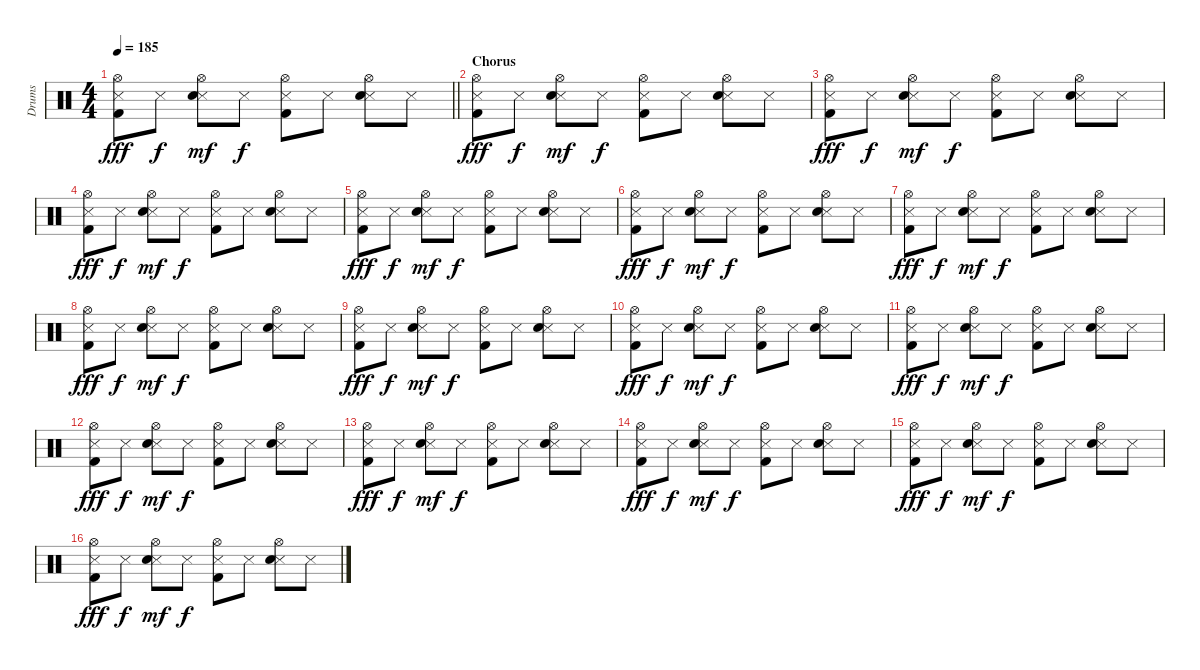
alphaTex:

\track ("Drums" "Drums") {instrument percussion}
\staff {score}
\articulation defaults
\ts (4 4)
\tempo 185
\clef neutral
\barLineRight lightlight
\ks c
("Hi-Hat (open)" "Metronome (hit)" "Kick (hit) 2").8{dy fff} "Metronome (hit)".8{dy f} ("Hi-Hat (open)" "Metronome (hit)" "Snare (hit) 2").8{dy mf} "Metronome (hit)".8{dy f} ("Hi-Hat (open)" "Metronome (hit)" "Kick (hit) 2").8 "Metronome (hit)".8 ("Hi-Hat (open)" "Metronome (hit)" "Snare (hit) 2").8 "Metronome (hit)".8 |
\section ("" "Chorus")
("Hi-Hat (open)" "Metronome (hit)" "Kick (hit) 2").8{dy fff} "Metronome (hit)".8{dy f} ("Hi-Hat (open)" "Metronome (hit)" "Snare (hit) 2").8{dy mf} "Metronome (hit)".8{dy f} ("Hi-Hat (open)" "Metronome (hit)" "Kick (hit) 2").8 "Metronome (hit)".8 ("Hi-Hat (open)" "Metronome (hit)" "Snare (hit) 2").8 "Metronome (hit)".8 |
("Hi-Hat (open)" "Metronome (hit)" "Kick (hit) 2").8{dy fff} "Metronome (hit)".8{dy f} ("Hi-Hat (open)" "Metronome (hit)" "Snare (hit) 2").8{dy mf} "Metronome (hit)".8{dy f} ("Hi-Hat (open)" "Metronome (hit)" "Kick (hit) 2").8 "Metronome (hit)".8 ("Hi-Hat (open)" "Metronome (hit)" "Snare (hit) 2").8 "Metronome (hit)".8 |
("Hi-Hat (open)" "Metronome (hit)" "Kick (hit) 2").8{dy fff} "Metronome (hit)".8{dy f} ("Hi-Hat (open)" "Metronome (hit)" "Snare (hit) 2").8{dy mf} "Metronome (hit)".8{dy f} ("Hi-Hat (open)" "Metronome (hit)" "Kick (hit) 2").8 "Metronome (hit)".8 ("Hi-Hat (open)" "Metronome (hit)" "Snare (hit) 2").8 "Metronome (hit)".8 |
("Hi-Hat (open)" "Metronome (hit)" "Kick (hit) 2").8{dy fff} "Metronome (hit)".8{dy f} ("Hi-Hat (open)" "Metronome (hit)" "Snare (hit) 2").8{dy mf} "Metronome (hit)".8{dy f} ("Hi-Hat (open)" "Metronome (hit)" "Kick (hit) 2").8 "Metronome (hit)".8 ("Hi-Hat (open)" "Metronome (hit)" "Snare (hit) 2").8 "Metronome (hit)".8 |
("Hi-Hat (open)" "Metronome (hit)" "Kick (hit) 2").8{dy fff} "Metronome (hit)".8{dy f} ("Hi-Hat (open)" "Metronome (hit)" "Snare (hit) 2").8{dy mf} "Metronome (hit)".8{dy f} ("Hi-Hat (open)" "Metronome (hit)" "Kick (hit) 2").8 "Metronome (hit)".8 ("Hi-Hat (open)" "Metronome (hit)" "Snare (hit) 2").8 "Metronome (hit)".8 |
("Hi-Hat (open)" "Metronome (hit)" "Kick (hit) 2").8{dy fff} "Metronome (hit)".8{dy f} ("Hi-Hat (open)" "Metronome (hit)" "Snare (hit) 2").8{dy mf} "Metronome (hit)".8{dy f} ("Hi-Hat (open)" "Metronome (hit)" "Kick (hit) 2").8 "Metronome (hit)".8 ("Hi-Hat (open)" "Metronome (hit)" "Snare (hit) 2").8 "Metronome (hit)".8 |
("Hi-Hat (open)" "Metronome (hit)" "Kick (hit) 2").8{dy fff} "Metronome (hit)".8{dy f} ("Hi-Hat (open)" "Metronome (hit)" "Snare (hit) 2").8{dy mf} "Metronome (hit)".8{dy f} ("Hi-Hat (open)" "Metronome (hit)" "Kick (hit) 2").8 "Metronome (hit)".8 ("Hi-Hat (open)" "Metronome (hit)" "Snare (hit) 2").8 "Metronome (hit)".8 |
("Hi-Hat (open)" "Metronome (hit)" "Kick (hit) 2").8{dy fff} "Metronome (hit)".8{dy f} ("Hi-Hat (open)" "Metronome (hit)" "Snare (hit) 2").8{dy mf} "Metronome (hit)".8{dy f} ("Hi-Hat (open)" "Metronome (hit)" "Kick (hit) 2").8 "Metronome (hit)".8 ("Hi-Hat (open)" "Metronome (hit)" "Snare (hit) 2").8 "Metronome (hit)".8 |
("Hi-Hat (open)" "Metronome (hit)" "Kick (hit) 2").8{dy fff} "Metronome (hit)".8{dy f} ("Hi-Hat (open)" "Metronome (hit)" "Snare (hit) 2").8{dy mf} "Metronome (hit)".8{dy f} ("Hi-Hat (open)" "Metronome (hit)" "Kick (hit) 2").8 "Metronome (hit)".8 ("Hi-Hat (open)" "Metronome (hit)" "Snare (hit) 2").8 "Metronome (hit)".8 |
("Hi-Hat (open)" "Metronome (hit)" "Kick (hit) 2").8{dy fff} "Metronome (hit)".8{dy f} ("Hi-Hat (open)" "Metronome (hit)" "Snare (hit) 2").8{dy mf} "Metronome (hit)".8{dy f} ("Hi-Hat (open)" "Metronome (hit)" "Kick (hit) 2").8 "Metronome (hit)".8 ("Hi-Hat (open)" "Metronome (hit)" "Snare (hit) 2").8 "Metronome (hit)".8 |
("Hi-Hat (open)" "Metronome (hit)" "Kick (hit) 2").8{dy fff} "Metronome (hit)".8{dy f} ("Hi-Hat (open)" "Metronome (hit)" "Snare (hit) 2").8{dy mf} "Metronome (hit)".8{dy f} ("Hi-Hat (open)" "Metronome (hit)" "Kick (hit) 2").8 "Metronome (hit)".8 ("Hi-Hat (open)" "Metronome (hit)" "Snare (hit) 2").8 "Metronome (hit)".8 |
("Hi-Hat (open)" "Metronome (hit)" "Kick (hit) 2").8{dy fff} "Metronome (hit)".8{dy f} ("Hi-Hat (open)" "Metronome (hit)" "Snare (hit) 2").8{dy mf} "Metronome (hit)".8{dy f} ("Hi-Hat (open)" "Metronome (hit)" "Kick (hit) 2").8 "Metronome (hit)".8 ("Hi-Hat (open)" "Metronome (hit)" "Snare (hit) 2").8 "Metronome (hit)".8 |
("Hi-Hat (open)" "Metronome (hit)" "Kick (hit) 2").8{dy fff} "Metronome (hit)".8{dy f} ("Hi-Hat (open)" "Metronome (hit)" "Snare (hit) 2").8{dy mf} "Metronome (hit)".8{dy f} ("Hi-Hat (open)" "Metronome (hit)" "Kick (hit) 2").8 "Metronome (hit)".8 ("Hi-Hat (open)" "Metronome (hit)" "Snare (hit) 2").8 "Metronome (hit)".8 |
("Hi-Hat (open)" "Metronome (hit)" "Kick (hit) 2").8{dy fff} "Metronome (hit)".8{dy f} ("Hi-Hat (open)" "Metronome (hit)" "Snare (hit) 2").8{dy mf} "Metronome (hit)".8{dy f} ("Hi-Hat (open)" "Metronome (hit)" "Kick (hit) 2").8 "Metronome (hit)".8 ("Hi-Hat (open)" "Metronome (hit)" "Snare (hit) 2").8 "Metronome (hit)".8 |
("Hi-Hat (open)" "Metronome (hit)" "Kick (hit) 2").8{dy fff} "Metronome (hit)".8{dy f} ("Hi-Hat (open)" "Metronome (hit)" "Snare (hit) 2").8{dy mf} "Metronome (hit)".8{dy f} ("Hi-Hat (open)" "Metronome (hit)" "Kick (hit) 2").8 "Metronome (hit)".8 ("Hi-Hat (open)" "Metronome (hit)" "Snare (hit) 2").8 "Metronome (hit)".8
